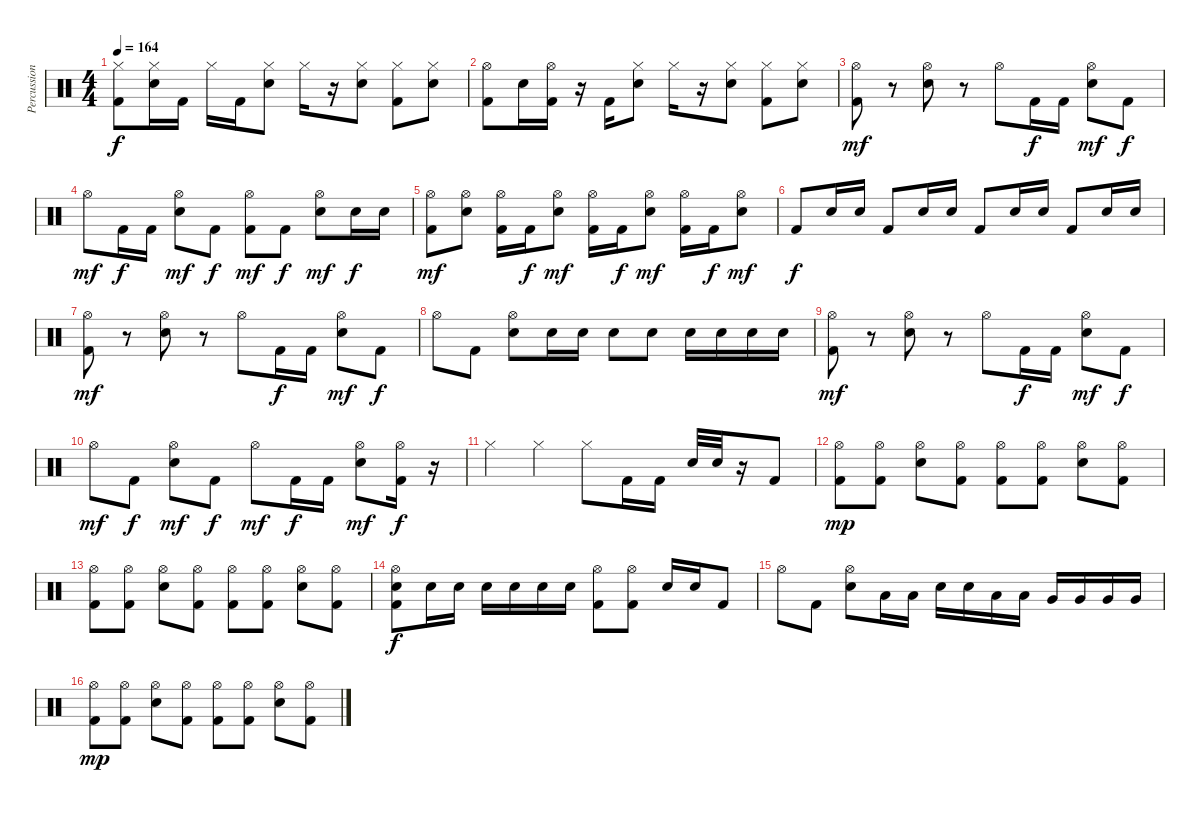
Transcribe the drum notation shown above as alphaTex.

\track ("Percussion" "Percussion") {instrument percussion}
\staff {score}
\articulation defaults
\ts (4 4)
\tempo 164
\clef neutral
\ks c
("Hi-Hat (closed)" "Kick (hit) 2").8{dy f} ("Hi-Hat (closed)" "Electric Snare (hit)").16 "Kick (hit) 2".16 "Hi-Hat (closed)".16 "Kick (hit) 2".16 ("Hi-Hat (closed)" "Electric Snare (hit)").8 "Hi-Hat (closed)".16 r.16 ("Hi-Hat (closed)" "Electric Snare (hit)").8 ("Hi-Hat (closed)" "Kick (hit) 2").8 ("Hi-Hat (closed)" "Electric Snare (hit)").8 |
("Hi-Hat (open)" "Kick (hit) 2").8 "Electric Snare (hit)".16 ("Hi-Hat (open)" "Kick (hit) 2").16 r.16 "Kick (hit) 2".16 ("Hi-Hat (closed)" "Electric Snare (hit)").8 "Hi-Hat (closed)".16 r.16 ("Hi-Hat (closed)" "Electric Snare (hit)").8 ("Hi-Hat (closed)" "Kick (hit) 2").8 ("Hi-Hat (closed)" "Electric Snare (hit)").8 |
("Hi-Hat (open)" "Kick (hit) 2").8{dy mf} r.8 ("Hi-Hat (open)" "Electric Snare (hit)").8 r.8 "Hi-Hat (open)".8 "Kick (hit) 2".16{dy f} "Kick (hit) 2".16 ("Hi-Hat (open)" "Electric Snare (hit)").8{dy mf} "Kick (hit) 2".8{dy f} |
"Hi-Hat (open)".8{dy mf} "Kick (hit) 2".16{dy f} "Kick (hit) 2".16 ("Hi-Hat (open)" "Electric Snare (hit)").8{dy mf} "Kick (hit) 2".8{dy f} ("Hi-Hat (open)" "Kick (hit) 2").8{dy mf} "Kick (hit) 2".8{dy f} ("Hi-Hat (open)" "Electric Snare (hit)").8{dy mf} "Electric Snare (hit)".16{dy f} "Electric Snare (hit)".16 |
("Hi-Hat (open)" "Kick (hit) 2").8{dy mf} ("Hi-Hat (open)" "Electric Snare (hit)").8 ("Hi-Hat (open)" "Kick (hit) 2").16 "Kick (hit) 2".16{dy f} ("Hi-Hat (open)" "Electric Snare (hit)").8{dy mf} ("Hi-Hat (open)" "Kick (hit) 2").16 "Kick (hit) 2".16{dy f} ("Hi-Hat (open)" "Electric Snare (hit)").8{dy mf} ("Hi-Hat (open)" "Kick (hit) 2").16 "Kick (hit) 2".16{dy f} ("Hi-Hat (open)" "Electric Snare (hit)").8{dy mf} |
"Kick (hit) 2".8{dy f} "Electric Snare (hit)".16 "Electric Snare (hit)".16 "Kick (hit) 2".8 "Electric Snare (hit)".16 "Electric Snare (hit)".16 "Kick (hit) 2".8 "Electric Snare (hit)".16 "Electric Snare (hit)".16 "Kick (hit) 2".8 "Electric Snare (hit)".16 "Electric Snare (hit)".16 |
("Hi-Hat (open)" "Kick (hit) 2").8{dy mf} r.8 ("Hi-Hat (open)" "Electric Snare (hit)").8 r.8 "Hi-Hat (open)".8 "Kick (hit) 2".16{dy f} "Kick (hit) 2".16 ("Hi-Hat (open)" "Electric Snare (hit)").8{dy mf} "Kick (hit) 2".8{dy f} |
"Hi-Hat (open)".8 "Kick (hit) 2".8 ("Hi-Hat (open)" "Electric Snare (hit)").8 "Electric Snare (hit)".16 "Electric Snare (hit)".16 "Electric Snare (hit)".8 "Electric Snare (hit)".8 "Electric Snare (hit)".16 "Electric Snare (hit)".16 "Electric Snare (hit)".16 "Electric Snare (hit)".16 |
("Hi-Hat (open)" "Kick (hit) 2").8{dy mf} r.8 ("Hi-Hat (open)" "Electric Snare (hit)").8 r.8 "Hi-Hat (open)".8 "Kick (hit) 2".16{dy f} "Kick (hit) 2".16 ("Hi-Hat (open)" "Electric Snare (hit)").8{dy mf} "Kick (hit) 2".8{dy f} |
"Hi-Hat (open)".8{dy mf} "Kick (hit) 2".8{dy f} ("Hi-Hat (open)" "Electric Snare (hit)").8{dy mf} "Kick (hit) 2".8{dy f} "Hi-Hat (open)".8{dy mf} "Kick (hit) 2".16{dy f} "Kick (hit) 2".16 ("Hi-Hat (open)" "Electric Snare (hit)").8{dy mf} ("Hi-Hat (open)" "Kick (hit) 2").16{dy f} r.16 |
"Hi-Hat (closed)".4 "Hi-Hat (closed)".4 "Hi-Hat (closed)".8 "Kick (hit) 2".16 "Kick (hit) 2".16 "Electric Snare (hit)".32 "Electric Snare (hit)".32 r.16 "Kick (hit) 2".8 |
("Hi-Hat (open)" "Kick (hit) 2").8{dy mp} ("Hi-Hat (open)" "Kick (hit) 2").8 ("Hi-Hat (open)" "Electric Snare (hit)").8 ("Hi-Hat (open)" "Kick (hit) 2").8 ("Hi-Hat (open)" "Kick (hit) 2").8 ("Hi-Hat (open)" "Kick (hit) 2").8 ("Hi-Hat (open)" "Electric Snare (hit)").8 ("Hi-Hat (open)" "Kick (hit) 2").8 |
("Hi-Hat (open)" "Kick (hit) 2").8 ("Hi-Hat (open)" "Kick (hit) 2").8 ("Hi-Hat (open)" "Electric Snare (hit)").8 ("Hi-Hat (open)" "Kick (hit) 2").8 ("Hi-Hat (open)" "Kick (hit) 2").8 ("Hi-Hat (open)" "Kick (hit) 2").8 ("Hi-Hat (open)" "Electric Snare (hit)").8 ("Hi-Hat (open)" "Kick (hit) 2").8 |
("Hi-Hat (open)" "Electric Snare (hit)" "Kick (hit) 2").8{dy f} "Electric Snare (hit)".16 "Electric Snare (hit)".16 "Electric Snare (hit)".16 "Electric Snare (hit)".16 "Electric Snare (hit)".16 "Electric Snare (hit)".16 ("Hi-Hat (open)" "Kick (hit) 2").8 ("Hi-Hat (open)" "Kick (hit) 2").8 "Electric Snare (hit)".16 "Electric Snare (hit)".16 "Kick (hit) 2".8 |
"Hi-Hat (open)".8 "Kick (hit) 2".8 ("Hi-Hat (open)" "Electric Snare (hit)").8 "Low Tom (hit)".16 "Low Tom (hit)".16 "Electric Snare (hit)".16 "Electric Snare (hit)".16 "Low Tom (hit)".16 "Low Tom (hit)".16 "Very Low Tom (hit)".16 "Very Low Tom (hit)".16 "Very Low Tom (hit)".16 "Very Low Tom (hit)".16 |
("Hi-Hat (open)" "Kick (hit) 2").8{dy mp} ("Hi-Hat (open)" "Kick (hit) 2").8 ("Hi-Hat (open)" "Electric Snare (hit)").8 ("Hi-Hat (open)" "Kick (hit) 2").8 ("Hi-Hat (open)" "Kick (hit) 2").8 ("Hi-Hat (open)" "Kick (hit) 2").8 ("Hi-Hat (open)" "Electric Snare (hit)").8 ("Hi-Hat (open)" "Kick (hit) 2").8
